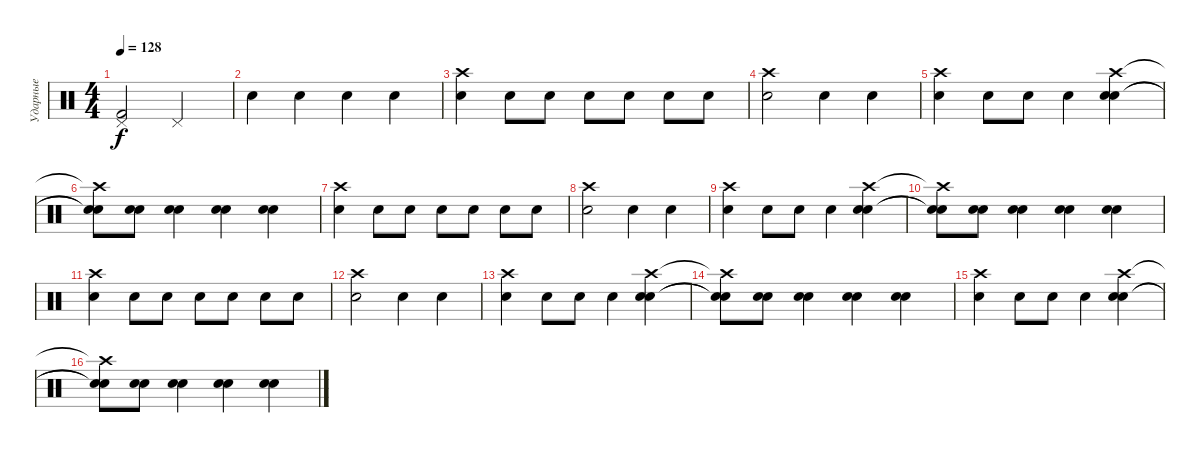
\track ("Ударные" "Ударные") {instrument percussion}
\staff {score}
\articulation defaults
\ts (4 4)
\tempo 128
\clef neutral
\ks c
("Pedal Hi-Hat (hit)" "Kick (hit) 2").2{dy f} "Pedal Hi-Hat (hit)".2 |
"Electric Snare (hit)".4 "Electric Snare (hit)".4 "Electric Snare (hit)".4 "Electric Snare (hit)".4 |
("Electric Snare (hit)" "Crash high (hit)").4 "Electric Snare (hit)".8 "Electric Snare (hit)".8 "Electric Snare (hit)".8 "Electric Snare (hit)".8 "Electric Snare (hit)".8 "Electric Snare (hit)".8 |
("Electric Snare (hit)" "Crash high (hit)").2 "Electric Snare (hit)".4 "Electric Snare (hit)".4 |
("Snare (hit) 2" "Crash high (hit)").4 "Snare (hit) 2".8 "Snare (hit) 2".8 "Snare (hit) 2".4 ("Electric Snare (hit)" "Snare (hit) 2" "Crash high (hit)").4 |
("Electric Snare (hit)"{t} "Snare (hit) 2"{t} "Crash high (hit)"{t}).8 ("Electric Snare (hit)" "Snare (hit) 2").8 ("Electric Snare (hit)" "Snare (hit) 2").4 ("Electric Snare (hit)" "Snare (hit) 2").4 ("Electric Snare (hit)" "Snare (hit) 2").4 |
("Electric Snare (hit)" "Crash high (hit)").4 "Electric Snare (hit)".8 "Electric Snare (hit)".8 "Electric Snare (hit)".8 "Electric Snare (hit)".8 "Electric Snare (hit)".8 "Electric Snare (hit)".8 |
("Electric Snare (hit)" "Crash high (hit)").2 "Electric Snare (hit)".4 "Electric Snare (hit)".4 |
("Snare (hit) 2" "Crash high (hit)").4 "Snare (hit) 2".8 "Snare (hit) 2".8 "Snare (hit) 2".4 ("Electric Snare (hit)" "Snare (hit) 2" "Crash high (hit)").4 |
("Electric Snare (hit)"{t} "Snare (hit) 2"{t} "Crash high (hit)"{t}).8 ("Electric Snare (hit)" "Snare (hit) 2").8 ("Electric Snare (hit)" "Snare (hit) 2").4 ("Electric Snare (hit)" "Snare (hit) 2").4 ("Electric Snare (hit)" "Snare (hit) 2").4 |
("Electric Snare (hit)" "Crash high (hit)").4 "Electric Snare (hit)".8 "Electric Snare (hit)".8 "Electric Snare (hit)".8 "Electric Snare (hit)".8 "Electric Snare (hit)".8 "Electric Snare (hit)".8 |
("Electric Snare (hit)" "Crash high (hit)").2 "Electric Snare (hit)".4 "Electric Snare (hit)".4 |
("Snare (hit) 2" "Crash high (hit)").4 "Snare (hit) 2".8 "Snare (hit) 2".8 "Snare (hit) 2".4 ("Electric Snare (hit)" "Snare (hit) 2" "Crash high (hit)").4 |
("Electric Snare (hit)"{t} "Snare (hit) 2"{t} "Crash high (hit)"{t}).8 ("Electric Snare (hit)" "Snare (hit) 2").8 ("Electric Snare (hit)" "Snare (hit) 2").4 ("Electric Snare (hit)" "Snare (hit) 2").4 ("Electric Snare (hit)" "Snare (hit) 2").4 |
("Snare (hit) 2" "Crash high (hit)").4 "Snare (hit) 2".8 "Snare (hit) 2".8 "Snare (hit) 2".4 ("Electric Snare (hit)" "Snare (hit) 2" "Crash high (hit)").4 |
("Electric Snare (hit)"{t} "Snare (hit) 2"{t} "Crash high (hit)"{t}).8 ("Electric Snare (hit)" "Snare (hit) 2").8 ("Electric Snare (hit)" "Snare (hit) 2").4 ("Electric Snare (hit)" "Snare (hit) 2").4 ("Electric Snare (hit)" "Snare (hit) 2").4
